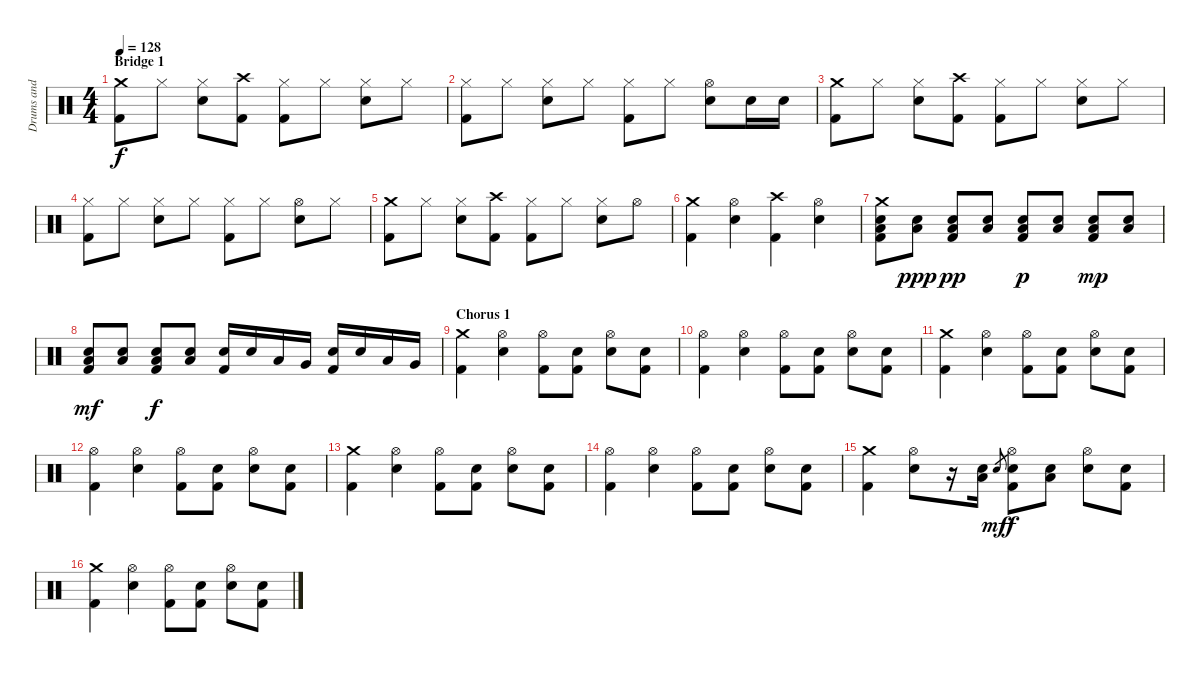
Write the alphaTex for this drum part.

\track ("Drums and Percussion" "Drums and ") {instrument percussion}
\staff {score}
\articulation defaults
\ts (4 4)
\section ("" "Bridge 1")
\tempo 128
\clef neutral
\ks c
("Crash medium (hit)" "Kick (hit) 2").8{dy f} "Hi-Hat (closed)".8 ("Hi-Hat (closed)" "Snare (hit) 2").8 ("Crash high (hit)" "Kick (hit) 2").8 ("Hi-Hat (closed)" "Kick (hit) 2").8 "Hi-Hat (closed)".8 ("Hi-Hat (closed)" "Snare (hit) 2").8 "Hi-Hat (closed)".8 |
("Hi-Hat (closed)" "Kick (hit) 2").8 "Hi-Hat (closed)".8 ("Hi-Hat (closed)" "Snare (hit) 2").8 "Hi-Hat (closed)".8 ("Hi-Hat (closed)" "Kick (hit) 2").8 "Hi-Hat (closed)".8 ("Hi-Hat (open)" "Snare (hit) 2").8 "Snare (hit) 2".16 "Snare (hit) 2".16 |
("Crash medium (hit)" "Kick (hit) 2").8 "Hi-Hat (closed)".8 ("Hi-Hat (closed)" "Snare (hit) 2").8 ("Crash high (hit)" "Kick (hit) 2").8 ("Hi-Hat (closed)" "Kick (hit) 2").8 "Hi-Hat (closed)".8 ("Hi-Hat (closed)" "Snare (hit) 2").8 "Hi-Hat (closed)".8 |
("Hi-Hat (closed)" "Kick (hit) 2").8 "Hi-Hat (closed)".8 ("Hi-Hat (closed)" "Snare (hit) 2").8 "Hi-Hat (closed)".8 ("Hi-Hat (closed)" "Kick (hit) 2").8 "Hi-Hat (closed)".8 ("Hi-Hat (open)" "Snare (hit) 2").8 "Hi-Hat (closed)".8 |
("Crash medium (hit)" "Kick (hit) 2").8 "Hi-Hat (closed)".8 ("Hi-Hat (closed)" "Snare (hit) 2").8 ("Crash high (hit)" "Kick (hit) 2").8 ("Hi-Hat (closed)" "Kick (hit) 2").8 "Hi-Hat (closed)".8 ("Hi-Hat (closed)" "Snare (hit) 2").8 "Hi-Hat (open)".8 |
("Crash medium (hit)" "Kick (hit) 2").4 ("Hi-Hat (open)" "Snare (hit) 2").4 ("Crash high (hit)" "Kick (hit) 2").4 ("Hi-Hat (open)" "Snare (hit) 2").4 |
("Crash medium (hit)" "Snare (hit) 2" "Low Floor Tom (hit)" "Kick (hit) 2").8 ("Snare (hit) 2" "Low Floor Tom (hit)").8{dy ppp} ("Snare (hit) 2" "Low Floor Tom (hit)" "Kick (hit) 2").8{dy pp} ("Snare (hit) 2" "Low Floor Tom (hit)").8 ("Snare (hit) 2" "Low Floor Tom (hit)" "Kick (hit) 2").8{dy p} ("Snare (hit) 2" "Low Floor Tom (hit)").8 ("Snare (hit) 2" "Low Floor Tom (hit)" "Kick (hit) 2").8{dy mp} ("Snare (hit) 2" "Low Floor Tom (hit)").8 |
("Snare (hit) 2" "Low Floor Tom (hit)" "Kick (hit) 2").8{dy mf} ("Snare (hit) 2" "Low Floor Tom (hit)").8 ("Snare (hit) 2" "Low Floor Tom (hit)" "Kick (hit) 2").8{dy f} ("Snare (hit) 2" "Low Floor Tom (hit)").8 ("Snare (hit) 2" "Kick (hit) 2").16 "Snare (hit) 2".16 "Low Tom (hit)".16 "Very Low Tom (hit)".16 ("Snare (hit) 2" "Kick (hit) 2").16 "Snare (hit) 2".16 "Low Tom (hit)".16 "Very Low Tom (hit)".16 |
\section ("" "Chorus 1")
("Crash medium (hit)" "Kick (hit) 2").4 ("Hi-Hat (open)" "Snare (hit) 2").4 ("Hi-Hat (open)" "Kick (hit) 2").8 ("Snare (hit)" "Kick (hit) 2").8 ("Hi-Hat (open)" "Snare (hit) 2").8 ("Snare (hit)" "Kick (hit) 2").8 |
("Hi-Hat (open)" "Kick (hit) 2").4 ("Hi-Hat (open)" "Snare (hit) 2").4 ("Hi-Hat (open)" "Kick (hit) 2").8 ("Snare (hit)" "Kick (hit) 2").8 ("Hi-Hat (open)" "Snare (hit) 2").8 ("Snare (hit)" "Kick (hit) 2").8 |
("Crash medium (hit)" "Kick (hit) 2").4 ("Hi-Hat (open)" "Snare (hit) 2").4 ("Hi-Hat (open)" "Kick (hit) 2").8 ("Snare (hit)" "Kick (hit) 2").8 ("Hi-Hat (open)" "Snare (hit) 2").8 ("Snare (hit)" "Kick (hit) 2").8 |
("Hi-Hat (open)" "Kick (hit) 2").4 ("Hi-Hat (open)" "Snare (hit) 2").4 ("Hi-Hat (open)" "Kick (hit) 2").8 ("Snare (hit)" "Kick (hit) 2").8 ("Hi-Hat (open)" "Snare (hit) 2").8 ("Snare (hit)" "Kick (hit) 2").8 |
("Crash medium (hit)" "Kick (hit) 2").4 ("Hi-Hat (open)" "Snare (hit) 2").4 ("Hi-Hat (open)" "Kick (hit) 2").8 ("Snare (hit)" "Kick (hit) 2").8 ("Hi-Hat (open)" "Snare (hit) 2").8 ("Snare (hit)" "Kick (hit) 2").8 |
("Hi-Hat (open)" "Kick (hit) 2").4 ("Hi-Hat (open)" "Snare (hit) 2").4 ("Hi-Hat (open)" "Kick (hit) 2").8 ("Snare (hit)" "Kick (hit) 2").8 ("Hi-Hat (open)" "Snare (hit) 2").8 ("Snare (hit)" "Kick (hit) 2").8 |
("Crash medium (hit)" "Kick (hit) 2").4 ("Hi-Hat (open)" "Snare (hit) 2").8 r.16 ("Snare (hit)" "Low Tom (hit)").16 "Snare (hit)".8{gr dy mf} ("Hi-Hat (open)" "Snare (hit) 2" "Kick (hit) 2").8{dy f} ("Snare (hit)" "Low Tom (hit)").8 ("Hi-Hat (open)" "Snare (hit) 2").8 ("Snare (hit)" "Kick (hit) 2").8 |
("Crash medium (hit)" "Kick (hit) 2").4 ("Hi-Hat (open)" "Snare (hit) 2").4 ("Hi-Hat (open)" "Kick (hit) 2").8 ("Snare (hit)" "Kick (hit) 2").8 ("Hi-Hat (open)" "Snare (hit) 2").8 ("Snare (hit)" "Kick (hit) 2").8
